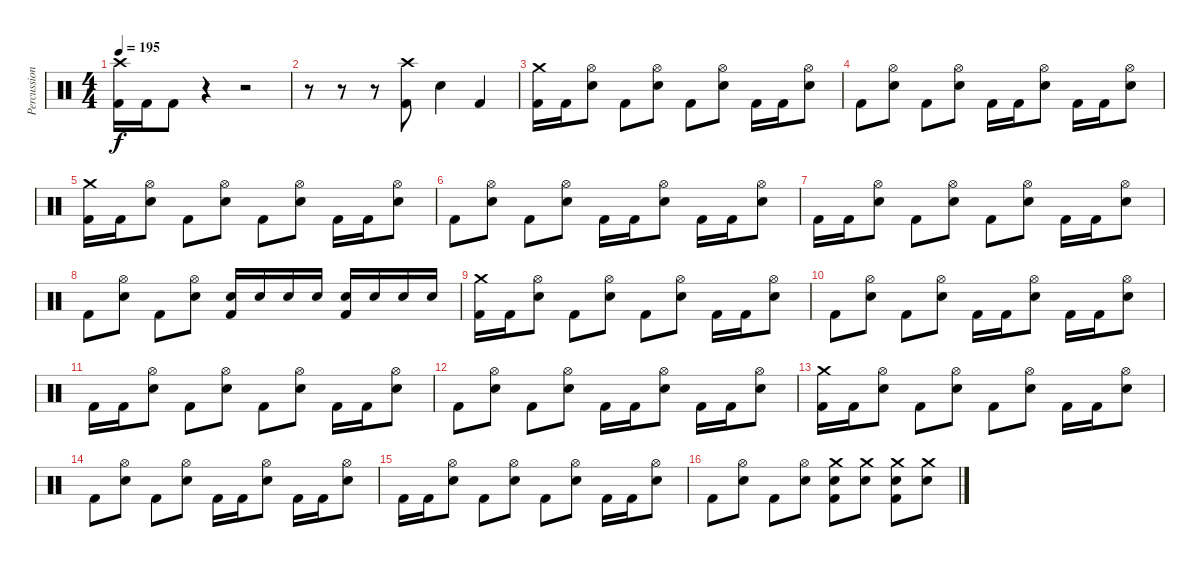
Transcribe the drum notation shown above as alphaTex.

\track ("Percussion" "Percussion") {instrument percussion}
\staff {score}
\articulation defaults
\ts (4 4)
\tempo 195
\clef neutral
\ks c
("Crash high (hit)" "Kick (hit) 2").16{dy f} "Kick (hit) 2".16 "Kick (hit) 2".8 r.4 r.2 |
r.8 r.8 r.8 ("Crash high (hit)" "Kick (hit) 2").8 "Snare (hit) 2".4 "Kick (hit) 2".4 |
("Crash medium (hit)" "Kick (hit) 2").16 "Kick (hit) 2".16 ("Hi-Hat (open)" "Snare (hit) 2").8 "Kick (hit) 2".8 ("Hi-Hat (open)" "Snare (hit) 2").8 "Kick (hit) 2".8 ("Hi-Hat (open)" "Snare (hit) 2").8 "Kick (hit) 2".16 "Kick (hit) 2".16 ("Hi-Hat (open)" "Snare (hit) 2").8 |
"Kick (hit) 2".8 ("Hi-Hat (open)" "Snare (hit) 2").8 "Kick (hit) 2".8 ("Hi-Hat (open)" "Snare (hit) 2").8 "Kick (hit) 2".16 "Kick (hit) 2".16 ("Hi-Hat (open)" "Snare (hit) 2").8 "Kick (hit) 2".16 "Kick (hit) 2".16 ("Hi-Hat (open)" "Snare (hit) 2").8 |
("Crash medium (hit)" "Kick (hit) 2").16 "Kick (hit) 2".16 ("Hi-Hat (open)" "Snare (hit) 2").8 "Kick (hit) 2".8 ("Hi-Hat (open)" "Snare (hit) 2").8 "Kick (hit) 2".8 ("Hi-Hat (open)" "Snare (hit) 2").8 "Kick (hit) 2".16 "Kick (hit) 2".16 ("Hi-Hat (open)" "Snare (hit) 2").8 |
"Kick (hit) 2".8 ("Hi-Hat (open)" "Snare (hit) 2").8 "Kick (hit) 2".8 ("Hi-Hat (open)" "Snare (hit) 2").8 "Kick (hit) 2".16 "Kick (hit) 2".16 ("Hi-Hat (open)" "Snare (hit) 2").8 "Kick (hit) 2".16 "Kick (hit) 2".16 ("Hi-Hat (open)" "Snare (hit) 2").8 |
"Kick (hit) 2".16 "Kick (hit) 2".16 ("Hi-Hat (open)" "Snare (hit) 2").8 "Kick (hit) 2".8 ("Hi-Hat (open)" "Snare (hit) 2").8 "Kick (hit) 2".8 ("Hi-Hat (open)" "Snare (hit) 2").8 "Kick (hit) 2".16 "Kick (hit) 2".16 ("Hi-Hat (open)" "Snare (hit) 2").8 |
"Kick (hit) 2".8 ("Hi-Hat (open)" "Snare (hit) 2").8 "Kick (hit) 2".8 ("Hi-Hat (open)" "Snare (hit) 2").8 ("Snare (hit) 2" "Kick (hit) 2").16 "Snare (hit) 2".16 "Snare (hit) 2".16 "Snare (hit) 2".16 ("Snare (hit) 2" "Kick (hit) 2").16 "Snare (hit) 2".16 "Snare (hit) 2".16 "Snare (hit) 2".16 |
("Crash medium (hit)" "Kick (hit) 2").16 "Kick (hit) 2".16 ("Hi-Hat (open)" "Snare (hit) 2").8 "Kick (hit) 2".8 ("Hi-Hat (open)" "Snare (hit) 2").8 "Kick (hit) 2".8 ("Hi-Hat (open)" "Snare (hit) 2").8 "Kick (hit) 2".16 "Kick (hit) 2".16 ("Hi-Hat (open)" "Snare (hit) 2").8 |
"Kick (hit) 2".8 ("Hi-Hat (open)" "Snare (hit) 2").8 "Kick (hit) 2".8 ("Hi-Hat (open)" "Snare (hit) 2").8 "Kick (hit) 2".16 "Kick (hit) 2".16 ("Hi-Hat (open)" "Snare (hit) 2").8 "Kick (hit) 2".16 "Kick (hit) 2".16 ("Hi-Hat (open)" "Snare (hit) 2").8 |
"Kick (hit) 2".16 "Kick (hit) 2".16 ("Hi-Hat (open)" "Snare (hit) 2").8 "Kick (hit) 2".8 ("Hi-Hat (open)" "Snare (hit) 2").8 "Kick (hit) 2".8 ("Hi-Hat (open)" "Snare (hit) 2").8 "Kick (hit) 2".16 "Kick (hit) 2".16 ("Hi-Hat (open)" "Snare (hit) 2").8 |
"Kick (hit) 2".8 ("Hi-Hat (open)" "Snare (hit) 2").8 "Kick (hit) 2".8 ("Hi-Hat (open)" "Snare (hit) 2").8 "Kick (hit) 2".16 "Kick (hit) 2".16 ("Hi-Hat (open)" "Snare (hit) 2").8 "Kick (hit) 2".16 "Kick (hit) 2".16 ("Hi-Hat (open)" "Snare (hit) 2").8 |
("Crash medium (hit)" "Kick (hit) 2").16 "Kick (hit) 2".16 ("Hi-Hat (open)" "Snare (hit) 2").8 "Kick (hit) 2".8 ("Hi-Hat (open)" "Snare (hit) 2").8 "Kick (hit) 2".8 ("Hi-Hat (open)" "Snare (hit) 2").8 "Kick (hit) 2".16 "Kick (hit) 2".16 ("Hi-Hat (open)" "Snare (hit) 2").8 |
"Kick (hit) 2".8 ("Hi-Hat (open)" "Snare (hit) 2").8 "Kick (hit) 2".8 ("Hi-Hat (open)" "Snare (hit) 2").8 "Kick (hit) 2".16 "Kick (hit) 2".16 ("Hi-Hat (open)" "Snare (hit) 2").8 "Kick (hit) 2".16 "Kick (hit) 2".16 ("Hi-Hat (open)" "Snare (hit) 2").8 |
"Kick (hit) 2".16 "Kick (hit) 2".16 ("Hi-Hat (open)" "Snare (hit) 2").8 "Kick (hit) 2".8 ("Hi-Hat (open)" "Snare (hit) 2").8 "Kick (hit) 2".8 ("Hi-Hat (open)" "Snare (hit) 2").8 "Kick (hit) 2".16 "Kick (hit) 2".16 ("Hi-Hat (open)" "Snare (hit) 2").8 |
"Kick (hit) 2".8 ("Hi-Hat (open)" "Snare (hit) 2").8 "Kick (hit) 2".8 ("Hi-Hat (open)" "Snare (hit) 2").8 ("Crash medium (hit)" "Snare (hit) 2" "Kick (hit) 2").8 ("Crash medium (hit)" "Snare (hit) 2").8 ("Crash medium (hit)" "Snare (hit) 2" "Kick (hit) 2").8 ("Crash medium (hit)" "Snare (hit) 2").8
